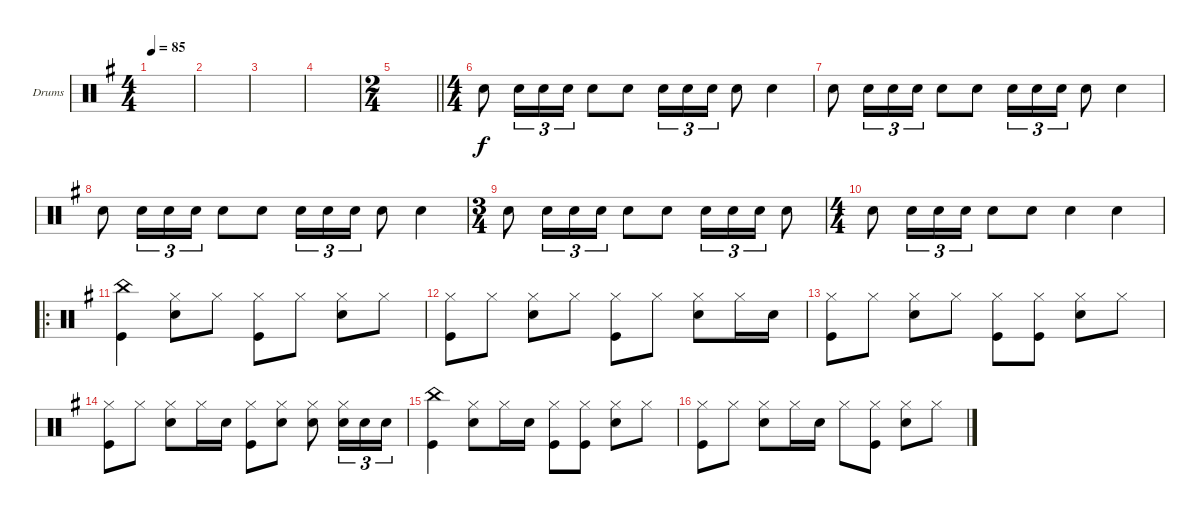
\defaultSystemsLayout 4
\bracketExtendMode groupsimilarinstruments
\firstSystemTrackNameOrientation horizontal
\otherSystemsTrackNameOrientation horizontal
\track ("Ian Paice" "Drums") {instrument percussion}
\staff {score}
\articulation defaults
\ts (4 4)
\tempo 85
\clef neutral
\ks g
|
|
|
|
\ts (2 4)
\barLineRight lightlight
|
\ts (4 4)
"Snare (hit) 2".8 "Snare (hit) 2".16{tu (3 2)} "Snare (hit) 2".16{tu (3 2)} "Snare (hit) 2".16{tu (3 2)} "Snare (hit) 2".8 "Snare (hit) 2".8 "Snare (hit) 2".16{tu (3 2)} "Snare (hit) 2".16{tu (3 2)} "Snare (hit) 2".16{tu (3 2)} "Snare (hit) 2".8 "Snare (hit) 2".4 |
"Snare (hit) 2".8 "Snare (hit) 2".16{tu (3 2)} "Snare (hit) 2".16{tu (3 2)} "Snare (hit) 2".16{tu (3 2)} "Snare (hit) 2".8 "Snare (hit) 2".8 "Snare (hit) 2".16{tu (3 2)} "Snare (hit) 2".16{tu (3 2)} "Snare (hit) 2".16{tu (3 2)} "Snare (hit) 2".8 "Snare (hit) 2".4 |
"Snare (hit) 2".8 "Snare (hit) 2".16{tu (3 2)} "Snare (hit) 2".16{tu (3 2)} "Snare (hit) 2".16{tu (3 2)} "Snare (hit) 2".8 "Snare (hit) 2".8 "Snare (hit) 2".16{tu (3 2)} "Snare (hit) 2".16{tu (3 2)} "Snare (hit) 2".16{tu (3 2)} "Snare (hit) 2".8 "Snare (hit) 2".4 |
\ts (3 4)
"Snare (hit) 2".8 "Snare (hit) 2".16{tu (3 2)} "Snare (hit) 2".16{tu (3 2)} "Snare (hit) 2".16{tu (3 2)} "Snare (hit) 2".8 "Snare (hit) 2".8 "Snare (hit) 2".16{tu (3 2)} "Snare (hit) 2".16{tu (3 2)} "Snare (hit) 2".16{tu (3 2)} "Snare (hit) 2".8 |
\ts (4 4)
"Snare (hit) 2".8 "Snare (hit) 2".16{tu (3 2)} "Snare (hit) 2".16{tu (3 2)} "Snare (hit) 2".16{tu (3 2)} "Snare (hit) 2".8 "Snare (hit) 2".8 "Snare (hit) 2".4 "Snare (hit) 2".4 |
\ro
("Kick (hit)" "China (hit)").4 ("Snare (hit) 2" "Hi-Hat (closed)").8 "Hi-Hat (closed)".8 ("Hi-Hat (closed)" "Kick (hit)").8 "Hi-Hat (closed)".8 ("Hi-Hat (closed)" "Snare (hit) 2").8 "Hi-Hat (closed)".8 |
("Hi-Hat (closed)" "Kick (hit)").8 "Hi-Hat (closed)".8 ("Hi-Hat (closed)" "Snare (hit) 2").8 "Hi-Hat (closed)".8 ("Hi-Hat (closed)" "Kick (hit)").8 "Hi-Hat (closed)".8 ("Hi-Hat (closed)" "Snare (hit) 2").8 "Hi-Hat (closed)".16 "Snare (hit) 2".16 |
("Hi-Hat (closed)" "Kick (hit)").8 "Hi-Hat (closed)".8 ("Hi-Hat (closed)" "Snare (hit) 2").8 "Hi-Hat (closed)".8 ("Hi-Hat (closed)" "Kick (hit)").8 ("Hi-Hat (closed)" "Kick (hit)").8 ("Hi-Hat (closed)" "Snare (hit) 2").8 "Hi-Hat (closed)".8 |
("Hi-Hat (closed)" "Kick (hit)").8 "Hi-Hat (closed)".8 ("Hi-Hat (closed)" "Snare (hit) 2").8 "Hi-Hat (closed)".16 "Snare (hit) 2".16 ("Hi-Hat (closed)" "Kick (hit)").8 ("Hi-Hat (closed)" "Snare (hit) 2").8 ("Hi-Hat (closed)" "Snare (hit) 2").8 ("Snare (hit) 2" "Hi-Hat (closed)").16{tu (3 2)} "Snare (hit) 2".16{tu (3 2)} "Snare (hit) 2".16{tu (3 2)} |
("China (hit)" "Kick (hit)").4 ("Snare (hit) 2" "Hi-Hat (closed)").8 "Hi-Hat (closed)".16 "Snare (hit) 2".16 ("Hi-Hat (closed)" "Kick (hit)").8 ("Kick (hit)" "Hi-Hat (closed)").8 ("Hi-Hat (closed)" "Snare (hit) 2").8 "Hi-Hat (closed)".8 |
("Hi-Hat (closed)" "Kick (hit)").8 "Hi-Hat (closed)".8 ("Hi-Hat (closed)" "Snare (hit) 2").8 "Hi-Hat (closed)".16 "Snare (hit) 2".16 "Hi-Hat (closed)".8 ("Hi-Hat (closed)" "Kick (hit)").8 ("Hi-Hat (closed)" "Snare (hit) 2").8 "Hi-Hat (closed)".8
